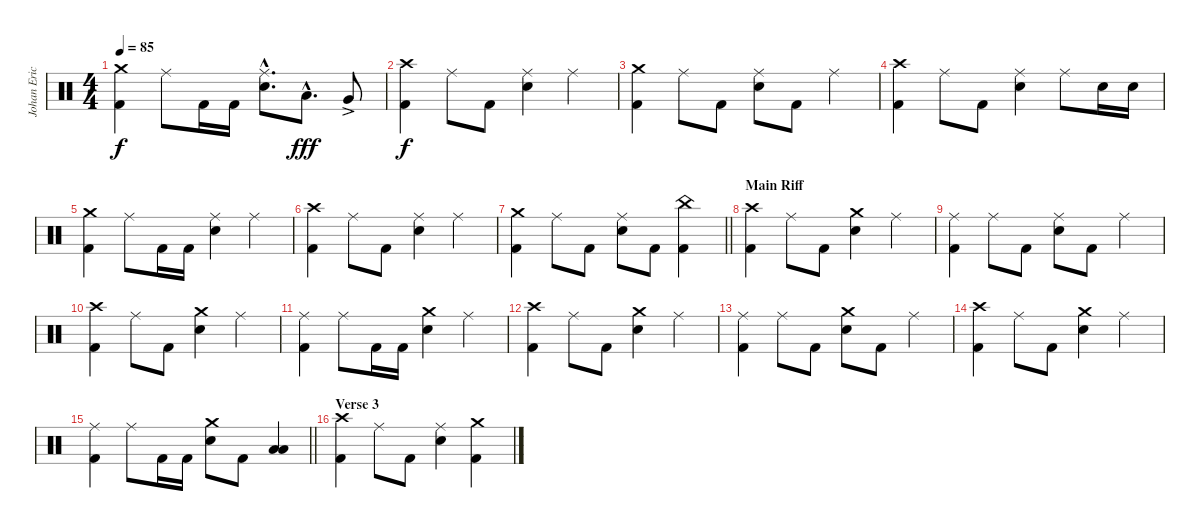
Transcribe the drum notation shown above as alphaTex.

\track ("Johan Ericson" "Johan Eric") {instrument percussion}
\staff {score}
\articulation defaults
\ts (4 4)
\tempo 85
\clef neutral
\ks c
("Crash medium (hit)" "Kick (hit) 2").4{dy f} "Ride (middle)".8 "Kick (hit) 2".16 "Kick (hit) 2".16 ("Ride (middle)"{hac} "Snare (hit) 2"{hac}).8{d} "Low Tom (hit)"{hac}.8{d dy fff} "Very Low Tom (hit)"{ac}.8 |
("Crash high (hit)" "Kick (hit) 2").4{dy f} "Ride (middle)".8 "Kick (hit) 2".8 ("Ride (middle)" "Snare (hit) 2").4 "Ride (middle)".4 |
("Crash medium (hit)" "Kick (hit) 2").4 "Ride (middle)".8 "Kick (hit) 2".8 ("Ride (middle)" "Snare (hit) 2").8 "Kick (hit) 2".8 "Ride (middle)".4 |
("Crash high (hit)" "Kick (hit) 2").4 "Ride (middle)".8 "Kick (hit) 2".8 ("Ride (middle)" "Snare (hit) 2").4 "Ride (middle)".8 "Snare (hit) 2".16 "Snare (hit) 2".16 |
("Crash medium (hit)" "Kick (hit) 2").4 "Ride (middle)".8 "Kick (hit) 2".16 "Kick (hit) 2".16 ("Ride (middle)" "Snare (hit) 2").4 "Ride (middle)".4 |
("Crash high (hit)" "Kick (hit) 2").4 "Ride (middle)".8 "Kick (hit) 2".8 ("Ride (middle)" "Snare (hit) 2").4 "Ride (middle)".4 |
\barLineRight lightlight
("Crash medium (hit)" "Kick (hit) 2").4 "Ride (middle)".8 "Kick (hit) 2".8 ("Ride (middle)" "Snare (hit) 2").8 "Kick (hit) 2".8 ("China (hit)" "Kick (hit) 2").4 |
\section ("" "Main Riff")
("Crash high (hit)" "Kick (hit) 2").4 "Ride (middle)".8 "Kick (hit) 2".8 ("Crash medium (hit)" "Snare (hit) 2").4 "Ride (middle)".4 |
("Ride (middle)" "Kick (hit) 2").4 "Ride (middle)".8 "Kick (hit) 2".8 ("Ride (middle)" "Snare (hit) 2").8 "Kick (hit) 2".8 "Ride (middle)".4 |
("Crash high (hit)" "Kick (hit) 2").4 "Ride (middle)".8 "Kick (hit) 2".8 ("Crash medium (hit)" "Snare (hit) 2").4 "Ride (middle)".4 |
("Ride (middle)" "Kick (hit) 2").4 "Ride (middle)".8 "Kick (hit) 2".16 "Kick (hit) 2".16 ("Crash medium (hit)" "Snare (hit) 2").4 "Ride (middle)".4 |
("Crash high (hit)" "Kick (hit) 2").4 "Ride (middle)".8 "Kick (hit) 2".8 ("Crash medium (hit)" "Snare (hit) 2").4 "Ride (middle)".4 |
("Ride (middle)" "Kick (hit) 2").4 "Ride (middle)".8 "Kick (hit) 2".8 ("Crash medium (hit)" "Snare (hit) 2").8 "Kick (hit) 2".8 "Ride (middle)".4 |
("Crash high (hit)" "Kick (hit) 2").4 "Ride (middle)".8 "Kick (hit) 2".8 ("Crash medium (hit)" "Snare (hit) 2").4 "Ride (middle)".4 |
\barLineRight lightlight
("Ride (middle)" "Kick (hit) 2").4 "Ride (middle)".8 "Kick (hit) 2".16 "Kick (hit) 2".16 ("Crash medium (hit)" "Snare (hit) 2").8 "Kick (hit) 2".8 ("Low Floor Tom (hit)" "Low Tom (hit)").4 |
\section ("" "Verse 3")
("Crash high (hit)" "Kick (hit) 2").4 "Ride (middle)".8 "Kick (hit) 2".8 ("Ride (middle)" "Snare (hit) 2").4 ("Crash medium (hit)" "Kick (hit) 2").4
